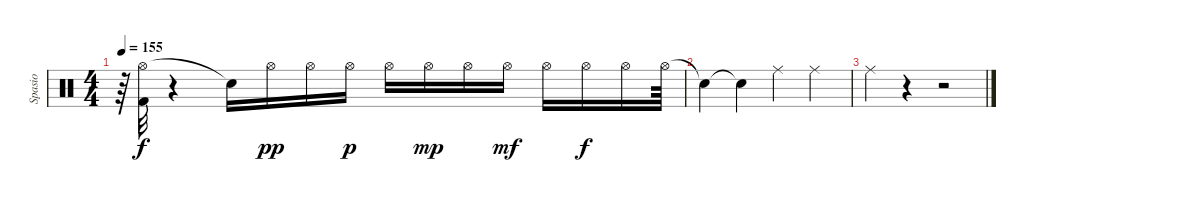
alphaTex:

\track ("Spasio" "Spasio") {instrument percussion}
\staff {score}
\articulation defaults
\ts (4 4)
\tempo 155
\clef neutral
\ks c
r.64{dy ff} ("Hi-Hat (open)" "Kick (hit) 2").32{dy f} r.4 "Snare (hit)"{t}.16 "Hi-Hat (open)".16{dy pp} "Hi-Hat (open)".16 "Hi-Hat (open)".16{dy p} "Hi-Hat (open)".16 "Hi-Hat (open)".16{dy mp} "Hi-Hat (open)".16 "Hi-Hat (open)".16{dy mf} "Hi-Hat (open)".16 "Hi-Hat (open)".16{dy f} "Hi-Hat (open)".16 "Hi-Hat (open)".64 |
"Snare (hit)"{t}.4 "Snare (hit)"{t}.4 "Ride (middle)".4 "Ride (middle)".4 |
"Ride (middle)".4 r.4 r.2
